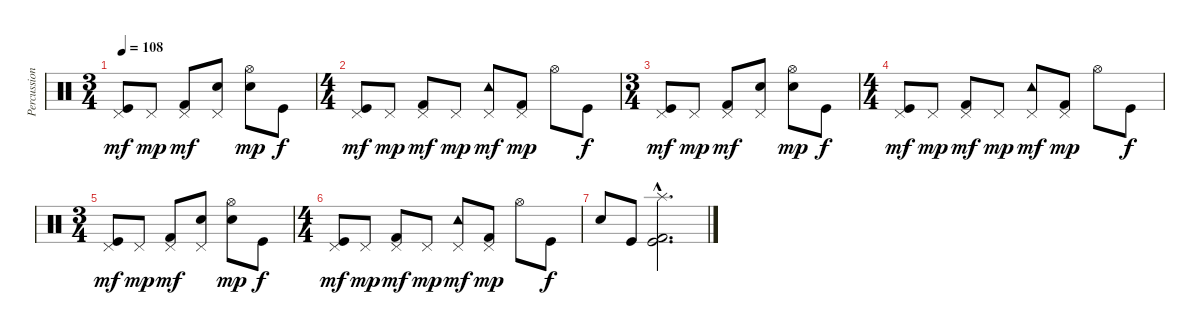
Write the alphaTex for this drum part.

\track ("Percussion" "Percussion") {instrument percussion}
\staff {score}
\articulation defaults
\ts (3 4)
\tempo 108
\clef neutral
\ks c
("Pedal Hi-Hat (hit)" "Kick (hit)").8{dy mf} "Pedal Hi-Hat (hit)".8{dy mp} ("Pedal Hi-Hat (hit)" "Kick (hit) 2").8{dy mf} ("Pedal Hi-Hat (hit)" "Snare (hit) 2").8 ("Hi-Hat (open)" "Hand Clap (hit)").8{dy mp} "Kick (hit)".8{dy f} |
\ts (4 4)
("Pedal Hi-Hat (hit)" "Kick (hit)").8{dy mf} "Pedal Hi-Hat (hit)".8{dy mp} ("Pedal Hi-Hat (hit)" "Kick (hit) 2").8{dy mf} "Pedal Hi-Hat (hit)".8{dy mp} ("Pedal Hi-Hat (hit)" "Tambourine (hit)").8{dy mf} ("Pedal Hi-Hat (hit)" "Kick (hit) 2").8{dy mp} "Hi-Hat (open)".8 "Kick (hit)".8{dy f} |
\ts (3 4)
("Pedal Hi-Hat (hit)" "Kick (hit)").8{dy mf} "Pedal Hi-Hat (hit)".8{dy mp} ("Pedal Hi-Hat (hit)" "Kick (hit) 2").8{dy mf} ("Pedal Hi-Hat (hit)" "Snare (hit) 2").8 ("Hi-Hat (open)" "Hand Clap (hit)").8{dy mp} "Kick (hit)".8{dy f} |
\ts (4 4)
("Pedal Hi-Hat (hit)" "Kick (hit)").8{dy mf} "Pedal Hi-Hat (hit)".8{dy mp} ("Pedal Hi-Hat (hit)" "Kick (hit) 2").8{dy mf} "Pedal Hi-Hat (hit)".8{dy mp} ("Pedal Hi-Hat (hit)" "Tambourine (hit)").8{dy mf} ("Pedal Hi-Hat (hit)" "Kick (hit) 2").8{dy mp} "Hi-Hat (open)".8 "Kick (hit)".8{dy f} |
\ts (3 4)
("Pedal Hi-Hat (hit)" "Kick (hit)").8{dy mf} "Pedal Hi-Hat (hit)".8{dy mp} ("Pedal Hi-Hat (hit)" "Kick (hit) 2").8{dy mf} ("Pedal Hi-Hat (hit)" "Snare (hit) 2").8 ("Hi-Hat (open)" "Hand Clap (hit)").8{dy mp} "Kick (hit)".8{dy f} |
\ts (4 4)
("Pedal Hi-Hat (hit)" "Kick (hit)").8{dy mf} "Pedal Hi-Hat (hit)".8{dy mp} ("Pedal Hi-Hat (hit)" "Kick (hit) 2").8{dy mf} "Pedal Hi-Hat (hit)".8{dy mp} ("Pedal Hi-Hat (hit)" "Tambourine (hit)").8{dy mf} ("Pedal Hi-Hat (hit)" "Kick (hit) 2").8{dy mp} "Hi-Hat (open)".8 "Kick (hit)".8{dy f} |
"Hand Clap (hit)".8 "Kick (hit)".8 ("Splash (hit)"{hac} "Kick (hit)"{hac} "Kick (hit) 2"{hac}).2{d}
